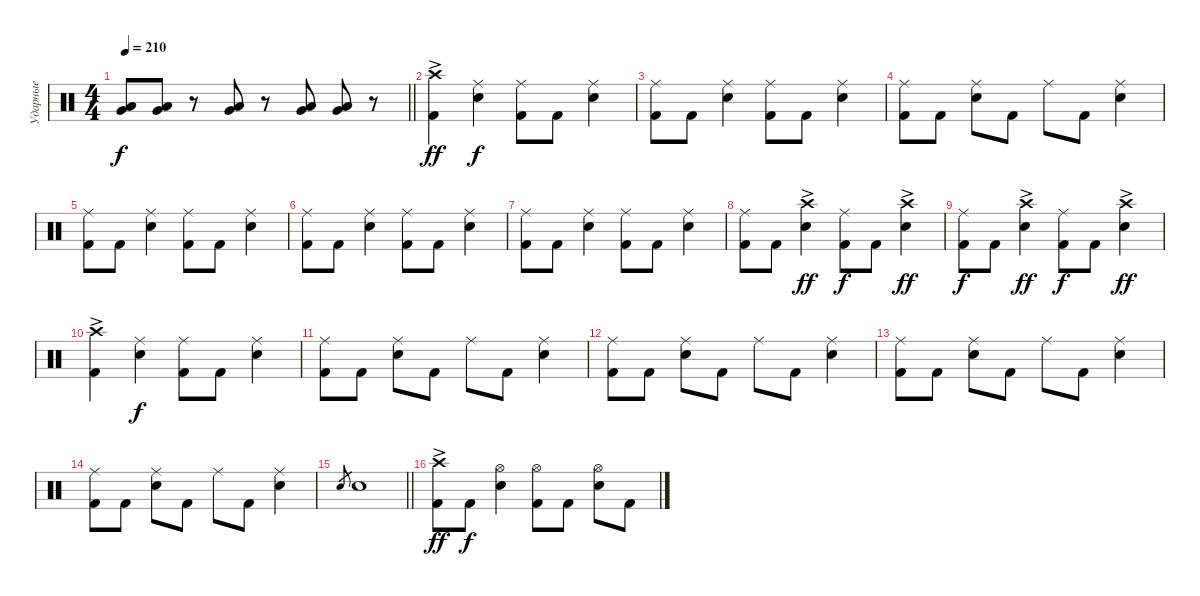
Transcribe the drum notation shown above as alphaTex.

\track ("Ударные" "Ударные") {instrument percussion}
\staff {score}
\articulation defaults
\ts (4 4)
\tempo 210
\clef neutral
\barLineRight lightlight
\ks c
("Low Tom (hit)" "Very Low Tom (hit)").8{dy f} ("Low Tom (hit)" "Very Low Tom (hit)").8 r.8 ("Very Low Tom (hit)" "Low Floor Tom (hit)").8 r.8 ("Very Low Tom (hit)" "Low Floor Tom (hit)").8 ("Very Low Tom (hit)" "Low Floor Tom (hit)").8 r.8 |
\section ("" "")
("Crash high (hit)"{ac} "Kick (hit) 2").4{dy ff} ("Ride (middle)" "Snare (hit) 2").4{dy f} ("Ride (middle)" "Kick (hit) 2").8 "Kick (hit) 2".8 ("Ride (middle)" "Snare (hit) 2").4 |
("Ride (middle)" "Kick (hit) 2").8 "Kick (hit) 2".8 ("Ride (middle)" "Snare (hit) 2").4 ("Ride (middle)" "Kick (hit) 2").8 "Kick (hit) 2".8 ("Ride (middle)" "Snare (hit) 2").4 |
("Ride (middle)" "Kick (hit) 2").8 "Kick (hit) 2".8 ("Ride (middle)" "Snare (hit) 2").8 "Kick (hit) 2".8 "Ride (middle)".8 "Kick (hit) 2".8 ("Ride (middle)" "Snare (hit) 2").4 |
("Ride (middle)" "Kick (hit) 2").8 "Kick (hit) 2".8 ("Ride (middle)" "Snare (hit) 2").4 ("Ride (middle)" "Kick (hit) 2").8 "Kick (hit) 2".8 ("Ride (middle)" "Snare (hit) 2").4 |
("Ride (middle)" "Kick (hit) 2").8 "Kick (hit) 2".8 ("Ride (middle)" "Snare (hit) 2").4 ("Ride (middle)" "Kick (hit) 2").8 "Kick (hit) 2".8 ("Ride (middle)" "Snare (hit) 2").4 |
("Ride (middle)" "Kick (hit) 2").8 "Kick (hit) 2".8 ("Ride (middle)" "Snare (hit) 2").4 ("Ride (middle)" "Kick (hit) 2").8 "Kick (hit) 2".8 ("Ride (middle)" "Snare (hit) 2").4 |
("Ride (middle)" "Kick (hit) 2").8 "Kick (hit) 2".8 ("Crash high (hit)"{ac} "Snare (hit) 2").4{dy ff} ("Ride (middle)" "Kick (hit) 2").8{dy f} "Kick (hit) 2".8 ("Crash high (hit)"{ac} "Snare (hit) 2").4{dy ff} |
("Ride (middle)" "Kick (hit) 2").8{dy f} "Kick (hit) 2".8 ("Crash high (hit)"{ac} "Snare (hit) 2").4{dy ff} ("Ride (middle)" "Kick (hit) 2").8{dy f} "Kick (hit) 2".8 ("Crash high (hit)"{ac} "Snare (hit) 2").4{dy ff} |
("Crash high (hit)"{ac} "Kick (hit) 2").4 ("Ride (middle)" "Snare (hit) 2").4{dy f} ("Ride (middle)" "Kick (hit) 2").8 "Kick (hit) 2".8 ("Ride (middle)" "Snare (hit) 2").4 |
("Ride (middle)" "Kick (hit) 2").8 "Kick (hit) 2".8 ("Ride (middle)" "Snare (hit) 2").8 "Kick (hit) 2".8 "Ride (middle)".8 "Kick (hit) 2".8 ("Ride (middle)" "Snare (hit) 2").4 |
("Ride (middle)" "Kick (hit) 2").8 "Kick (hit) 2".8 ("Ride (middle)" "Snare (hit) 2").8 "Kick (hit) 2".8 "Ride (middle)".8 "Kick (hit) 2".8 ("Ride (middle)" "Snare (hit) 2").4 |
("Ride (middle)" "Kick (hit) 2").8 "Kick (hit) 2".8 ("Ride (middle)" "Snare (hit) 2").8 "Kick (hit) 2".8 "Ride (middle)".8 "Kick (hit) 2".8 ("Ride (middle)" "Snare (hit) 2").4 |
("Ride (middle)" "Kick (hit) 2").8 "Kick (hit) 2".8 ("Ride (middle)" "Snare (hit) 2").8 "Kick (hit) 2".8 "Ride (middle)".8 "Kick (hit) 2".8 ("Ride (middle)" "Snare (hit) 2").4 |
\barLineRight lightlight "Snare (hit) 2".8{gr} "Snare (hit) 2".1
|
\section ("" "")
("Crash high (hit)"{ac} "Kick (hit) 2").8{dy ff} "Kick (hit) 2".8{dy f} ("Hi-Hat (open)" "Snare (hit) 2").4 ("Hi-Hat (open)" "Kick (hit) 2").8 "Kick (hit) 2".8 ("Hi-Hat (open)" "Snare (hit) 2").8 "Kick (hit) 2".8
